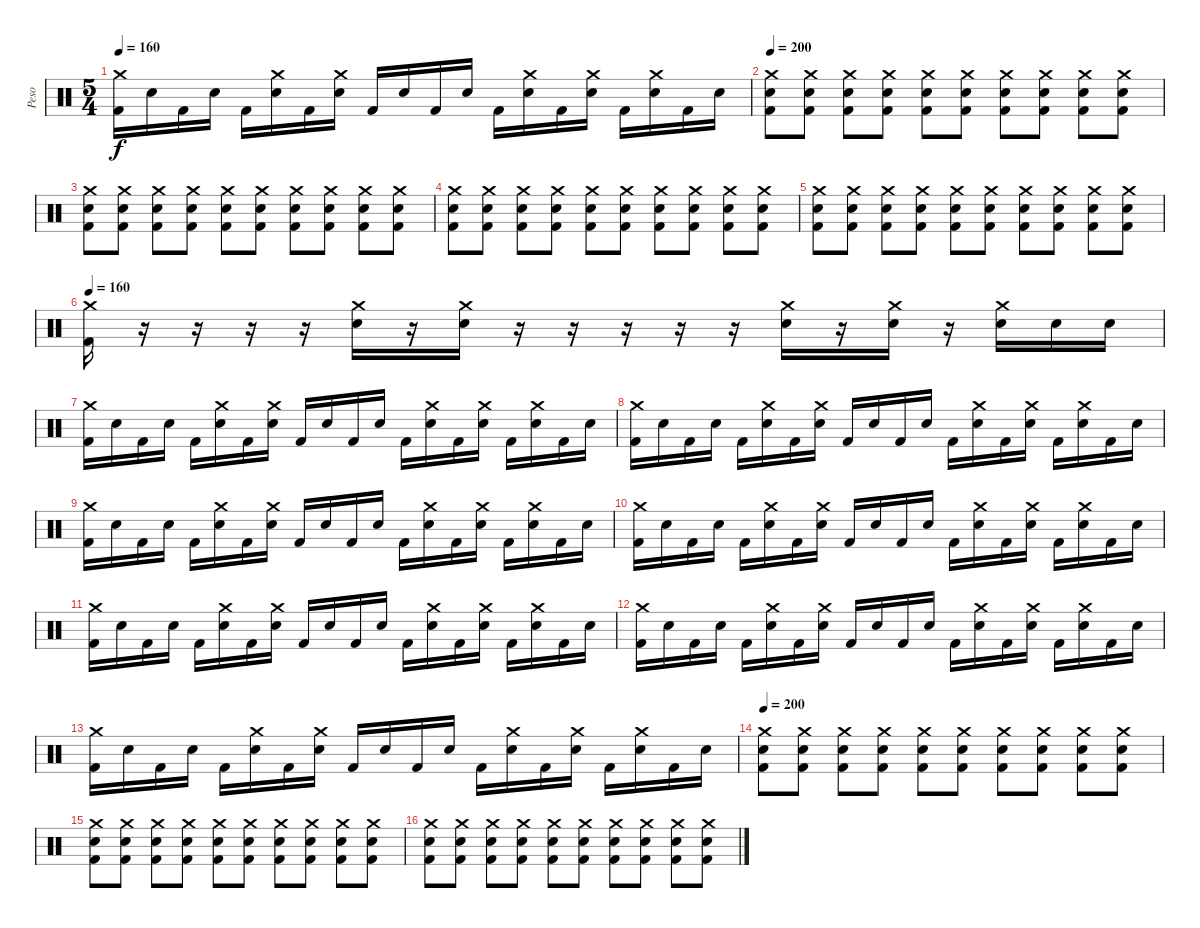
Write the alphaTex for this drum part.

\track ("Peso" "Peso") {instrument percussion}
\staff {score}
\articulation defaults
\ts (5 4)
\tempo 160
\clef neutral
\ks c
("Crash medium (hit)" "Kick (hit) 2").16{dy f} "Electric Snare (hit)".16 "Kick (hit) 2".16 "Electric Snare (hit)".16 "Kick (hit) 2".16 ("Crash medium (hit)" "Electric Snare (hit)").16 "Kick (hit) 2".16 ("Crash medium (hit)" "Electric Snare (hit)").16 "Kick (hit) 2".16 "Electric Snare (hit)".16 "Kick (hit) 2".16 "Electric Snare (hit)".16 "Kick (hit) 2".16 ("Crash medium (hit)" "Electric Snare (hit)").16 "Kick (hit) 2".16 ("Crash medium (hit)" "Electric Snare (hit)").16 "Kick (hit) 2".16 ("Crash medium (hit)" "Electric Snare (hit)").16 "Kick (hit) 2".16 "Electric Snare (hit)".16 |
\tempo 200
("Crash medium (hit)" "Electric Snare (hit)" "Kick (hit) 2").8 ("Crash medium (hit)" "Electric Snare (hit)" "Kick (hit) 2").8 ("Crash medium (hit)" "Electric Snare (hit)" "Kick (hit) 2").8 ("Crash medium (hit)" "Electric Snare (hit)" "Kick (hit) 2").8 ("Crash medium (hit)" "Electric Snare (hit)" "Kick (hit) 2").8 ("Crash medium (hit)" "Electric Snare (hit)" "Kick (hit) 2").8 ("Crash medium (hit)" "Electric Snare (hit)" "Kick (hit) 2").8 ("Crash medium (hit)" "Electric Snare (hit)" "Kick (hit) 2").8 ("Crash medium (hit)" "Electric Snare (hit)" "Kick (hit) 2").8 ("Crash medium (hit)" "Electric Snare (hit)" "Kick (hit) 2").8 |
("Crash medium (hit)" "Electric Snare (hit)" "Kick (hit) 2").8 ("Crash medium (hit)" "Electric Snare (hit)" "Kick (hit) 2").8 ("Crash medium (hit)" "Electric Snare (hit)" "Kick (hit) 2").8 ("Crash medium (hit)" "Electric Snare (hit)" "Kick (hit) 2").8 ("Crash medium (hit)" "Electric Snare (hit)" "Kick (hit) 2").8 ("Crash medium (hit)" "Electric Snare (hit)" "Kick (hit) 2").8 ("Crash medium (hit)" "Electric Snare (hit)" "Kick (hit) 2").8 ("Crash medium (hit)" "Electric Snare (hit)" "Kick (hit) 2").8 ("Crash medium (hit)" "Electric Snare (hit)" "Kick (hit) 2").8 ("Crash medium (hit)" "Electric Snare (hit)" "Kick (hit) 2").8 |
("Crash medium (hit)" "Electric Snare (hit)" "Kick (hit) 2").8 ("Crash medium (hit)" "Electric Snare (hit)" "Kick (hit) 2").8 ("Crash medium (hit)" "Electric Snare (hit)" "Kick (hit) 2").8 ("Crash medium (hit)" "Electric Snare (hit)" "Kick (hit) 2").8 ("Crash medium (hit)" "Electric Snare (hit)" "Kick (hit) 2").8 ("Crash medium (hit)" "Electric Snare (hit)" "Kick (hit) 2").8 ("Crash medium (hit)" "Electric Snare (hit)" "Kick (hit) 2").8 ("Crash medium (hit)" "Electric Snare (hit)" "Kick (hit) 2").8 ("Crash medium (hit)" "Electric Snare (hit)" "Kick (hit) 2").8 ("Crash medium (hit)" "Electric Snare (hit)" "Kick (hit) 2").8 |
("Crash medium (hit)" "Electric Snare (hit)" "Kick (hit) 2").8 ("Crash medium (hit)" "Electric Snare (hit)" "Kick (hit) 2").8 ("Crash medium (hit)" "Electric Snare (hit)" "Kick (hit) 2").8 ("Crash medium (hit)" "Electric Snare (hit)" "Kick (hit) 2").8 ("Crash medium (hit)" "Electric Snare (hit)" "Kick (hit) 2").8 ("Crash medium (hit)" "Electric Snare (hit)" "Kick (hit) 2").8 ("Crash medium (hit)" "Electric Snare (hit)" "Kick (hit) 2").8 ("Crash medium (hit)" "Electric Snare (hit)" "Kick (hit) 2").8 ("Crash medium (hit)" "Electric Snare (hit)" "Kick (hit) 2").8 ("Crash medium (hit)" "Electric Snare (hit)" "Kick (hit) 2").8 |
\tempo 160
("Crash medium (hit)" "Kick (hit) 2").16 r.16 r.16 r.16 r.16 ("Crash medium (hit)" "Electric Snare (hit)").16 r.16 ("Crash medium (hit)" "Electric Snare (hit)").16 r.16 r.16 r.16 r.16 r.16 ("Crash medium (hit)" "Electric Snare (hit)").16 r.16 ("Crash medium (hit)" "Electric Snare (hit)").16 r.16 ("Crash medium (hit)" "Electric Snare (hit)").16 "Electric Snare (hit)".16 "Electric Snare (hit)".16 |
("Crash medium (hit)" "Kick (hit) 2").16 "Electric Snare (hit)".16 "Kick (hit) 2".16 "Electric Snare (hit)".16 "Kick (hit) 2".16 ("Crash medium (hit)" "Electric Snare (hit)").16 "Kick (hit) 2".16 ("Crash medium (hit)" "Electric Snare (hit)").16 "Kick (hit) 2".16 "Electric Snare (hit)".16 "Kick (hit) 2".16 "Electric Snare (hit)".16 "Kick (hit) 2".16 ("Crash medium (hit)" "Electric Snare (hit)").16 "Kick (hit) 2".16 ("Crash medium (hit)" "Electric Snare (hit)").16 "Kick (hit) 2".16 ("Crash medium (hit)" "Electric Snare (hit)").16 "Kick (hit) 2".16 "Electric Snare (hit)".16 |
("Crash medium (hit)" "Kick (hit) 2").16 "Electric Snare (hit)".16 "Kick (hit) 2".16 "Electric Snare (hit)".16 "Kick (hit) 2".16 ("Crash medium (hit)" "Electric Snare (hit)").16 "Kick (hit) 2".16 ("Crash medium (hit)" "Electric Snare (hit)").16 "Kick (hit) 2".16 "Electric Snare (hit)".16 "Kick (hit) 2".16 "Electric Snare (hit)".16 "Kick (hit) 2".16 ("Crash medium (hit)" "Electric Snare (hit)").16 "Kick (hit) 2".16 ("Crash medium (hit)" "Electric Snare (hit)").16 "Kick (hit) 2".16 ("Crash medium (hit)" "Electric Snare (hit)").16 "Kick (hit) 2".16 "Electric Snare (hit)".16 |
("Crash medium (hit)" "Kick (hit) 2").16 "Electric Snare (hit)".16 "Kick (hit) 2".16 "Electric Snare (hit)".16 "Kick (hit) 2".16 ("Crash medium (hit)" "Electric Snare (hit)").16 "Kick (hit) 2".16 ("Crash medium (hit)" "Electric Snare (hit)").16 "Kick (hit) 2".16 "Electric Snare (hit)".16 "Kick (hit) 2".16 "Electric Snare (hit)".16 "Kick (hit) 2".16 ("Crash medium (hit)" "Electric Snare (hit)").16 "Kick (hit) 2".16 ("Crash medium (hit)" "Electric Snare (hit)").16 "Kick (hit) 2".16 ("Crash medium (hit)" "Electric Snare (hit)").16 "Kick (hit) 2".16 "Electric Snare (hit)".16 |
("Crash medium (hit)" "Kick (hit) 2").16 "Electric Snare (hit)".16 "Kick (hit) 2".16 "Electric Snare (hit)".16 "Kick (hit) 2".16 ("Crash medium (hit)" "Electric Snare (hit)").16 "Kick (hit) 2".16 ("Crash medium (hit)" "Electric Snare (hit)").16 "Kick (hit) 2".16 "Electric Snare (hit)".16 "Kick (hit) 2".16 "Electric Snare (hit)".16 "Kick (hit) 2".16 ("Crash medium (hit)" "Electric Snare (hit)").16 "Kick (hit) 2".16 ("Crash medium (hit)" "Electric Snare (hit)").16 "Kick (hit) 2".16 ("Crash medium (hit)" "Electric Snare (hit)").16 "Kick (hit) 2".16 "Electric Snare (hit)".16 |
("Crash medium (hit)" "Kick (hit) 2").16 "Electric Snare (hit)".16 "Kick (hit) 2".16 "Electric Snare (hit)".16 "Kick (hit) 2".16 ("Crash medium (hit)" "Electric Snare (hit)").16 "Kick (hit) 2".16 ("Crash medium (hit)" "Electric Snare (hit)").16 "Kick (hit) 2".16 "Electric Snare (hit)".16 "Kick (hit) 2".16 "Electric Snare (hit)".16 "Kick (hit) 2".16 ("Crash medium (hit)" "Electric Snare (hit)").16 "Kick (hit) 2".16 ("Crash medium (hit)" "Electric Snare (hit)").16 "Kick (hit) 2".16 ("Crash medium (hit)" "Electric Snare (hit)").16 "Kick (hit) 2".16 "Electric Snare (hit)".16 |
("Crash medium (hit)" "Kick (hit) 2").16 "Electric Snare (hit)".16 "Kick (hit) 2".16 "Electric Snare (hit)".16 "Kick (hit) 2".16 ("Crash medium (hit)" "Electric Snare (hit)").16 "Kick (hit) 2".16 ("Crash medium (hit)" "Electric Snare (hit)").16 "Kick (hit) 2".16 "Electric Snare (hit)".16 "Kick (hit) 2".16 "Electric Snare (hit)".16 "Kick (hit) 2".16 ("Crash medium (hit)" "Electric Snare (hit)").16 "Kick (hit) 2".16 ("Crash medium (hit)" "Electric Snare (hit)").16 "Kick (hit) 2".16 ("Crash medium (hit)" "Electric Snare (hit)").16 "Kick (hit) 2".16 "Electric Snare (hit)".16 |
("Crash medium (hit)" "Kick (hit) 2").16 "Electric Snare (hit)".16 "Kick (hit) 2".16 "Electric Snare (hit)".16 "Kick (hit) 2".16 ("Crash medium (hit)" "Electric Snare (hit)").16 "Kick (hit) 2".16 ("Crash medium (hit)" "Electric Snare (hit)").16 "Kick (hit) 2".16 "Electric Snare (hit)".16 "Kick (hit) 2".16 "Electric Snare (hit)".16 "Kick (hit) 2".16 ("Crash medium (hit)" "Electric Snare (hit)").16 "Kick (hit) 2".16 ("Crash medium (hit)" "Electric Snare (hit)").16 "Kick (hit) 2".16 ("Crash medium (hit)" "Electric Snare (hit)").16 "Kick (hit) 2".16 "Electric Snare (hit)".16 |
\tempo 200
("Crash medium (hit)" "Electric Snare (hit)" "Kick (hit) 2").8 ("Crash medium (hit)" "Electric Snare (hit)" "Kick (hit) 2").8 ("Crash medium (hit)" "Electric Snare (hit)" "Kick (hit) 2").8 ("Crash medium (hit)" "Electric Snare (hit)" "Kick (hit) 2").8 ("Crash medium (hit)" "Electric Snare (hit)" "Kick (hit) 2").8 ("Crash medium (hit)" "Electric Snare (hit)" "Kick (hit) 2").8 ("Crash medium (hit)" "Electric Snare (hit)" "Kick (hit) 2").8 ("Crash medium (hit)" "Electric Snare (hit)" "Kick (hit) 2").8 ("Crash medium (hit)" "Electric Snare (hit)" "Kick (hit) 2").8 ("Crash medium (hit)" "Electric Snare (hit)" "Kick (hit) 2").8 |
("Crash medium (hit)" "Electric Snare (hit)" "Kick (hit) 2").8 ("Crash medium (hit)" "Electric Snare (hit)" "Kick (hit) 2").8 ("Crash medium (hit)" "Electric Snare (hit)" "Kick (hit) 2").8 ("Crash medium (hit)" "Electric Snare (hit)" "Kick (hit) 2").8 ("Crash medium (hit)" "Electric Snare (hit)" "Kick (hit) 2").8 ("Crash medium (hit)" "Electric Snare (hit)" "Kick (hit) 2").8 ("Crash medium (hit)" "Electric Snare (hit)" "Kick (hit) 2").8 ("Crash medium (hit)" "Electric Snare (hit)" "Kick (hit) 2").8 ("Crash medium (hit)" "Electric Snare (hit)" "Kick (hit) 2").8 ("Crash medium (hit)" "Electric Snare (hit)" "Kick (hit) 2").8 |
("Crash medium (hit)" "Electric Snare (hit)" "Kick (hit) 2").8 ("Crash medium (hit)" "Electric Snare (hit)" "Kick (hit) 2").8 ("Crash medium (hit)" "Electric Snare (hit)" "Kick (hit) 2").8 ("Crash medium (hit)" "Electric Snare (hit)" "Kick (hit) 2").8 ("Crash medium (hit)" "Electric Snare (hit)" "Kick (hit) 2").8 ("Crash medium (hit)" "Electric Snare (hit)" "Kick (hit) 2").8 ("Crash medium (hit)" "Electric Snare (hit)" "Kick (hit) 2").8 ("Crash medium (hit)" "Electric Snare (hit)" "Kick (hit) 2").8 ("Crash medium (hit)" "Electric Snare (hit)" "Kick (hit) 2").8 ("Crash medium (hit)" "Electric Snare (hit)" "Kick (hit) 2").8
